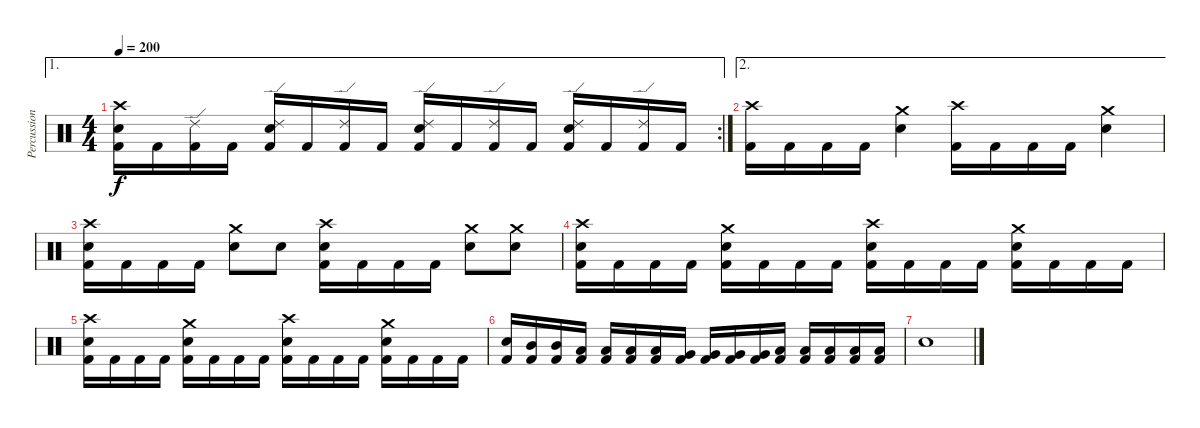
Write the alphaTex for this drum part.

\track ("Percussions" "Percussion") {instrument percussion}
\staff {score}
\articulation defaults
\ae 1
\rc 2
\ts (4 4)
\tempo 200
\clef neutral
\ks c
("Crash high (hit)" "Snare (hit) 2" "Kick (hit) 2").16{dy f} "Kick (hit) 2".16 ("Ride (edge) 2" "Kick (hit) 2").16 "Kick (hit) 2".16 ("Ride (edge) 2" "Snare (hit) 2" "Kick (hit) 2").16 "Kick (hit) 2".16 ("Ride (edge) 2" "Kick (hit) 2").16 "Kick (hit) 2".16 ("Ride (edge) 2" "Snare (hit) 2" "Kick (hit) 2").16 "Kick (hit) 2".16 ("Ride (edge) 2" "Kick (hit) 2").16 "Kick (hit) 2".16 ("Ride (edge) 2" "Snare (hit) 2" "Kick (hit) 2").16 "Kick (hit) 2".16 ("Ride (edge) 2" "Kick (hit) 2").16 "Kick (hit) 2".16 |
\ae 2
("Crash high (hit)" "Kick (hit) 2").16 "Kick (hit) 2".16 "Kick (hit) 2".16 "Kick (hit) 2".16 ("Crash medium (hit)" "Snare (hit) 2").4 ("Crash high (hit)" "Kick (hit) 2").16 "Kick (hit) 2".16 "Kick (hit) 2".16 "Kick (hit) 2".16 ("Crash medium (hit)" "Snare (hit) 2").4 |
("Crash high (hit)" "Snare (hit) 2" "Kick (hit) 2").16 "Kick (hit) 2".16 "Kick (hit) 2".16 "Kick (hit) 2".16 ("Crash medium (hit)" "Snare (hit) 2").8 "Snare (hit) 2".8 ("Crash high (hit)" "Snare (hit) 2" "Kick (hit) 2").16 "Kick (hit) 2".16 "Kick (hit) 2".16 "Kick (hit) 2".16 ("Crash medium (hit)" "Snare (hit) 2").8 ("Crash medium (hit)" "Snare (hit) 2").8 |
("Crash high (hit)" "Snare (hit) 2" "Kick (hit) 2").16 "Kick (hit) 2".16 "Kick (hit) 2".16 "Kick (hit) 2".16 ("Crash medium (hit)" "Snare (hit) 2" "Kick (hit) 2").16 "Kick (hit) 2".16 "Kick (hit) 2".16 "Kick (hit) 2".16 ("Crash high (hit)" "Snare (hit) 2" "Kick (hit) 2").16 "Kick (hit) 2".16 "Kick (hit) 2".16 "Kick (hit) 2".16 ("Crash medium (hit)" "Snare (hit) 2" "Kick (hit) 2").16 "Kick (hit) 2".16 "Kick (hit) 2".16 "Kick (hit) 2".16 |
("Crash high (hit)" "Snare (hit) 2" "Kick (hit) 2").16 "Kick (hit) 2".16 "Kick (hit) 2".16 "Kick (hit) 2".16 ("Crash medium (hit)" "Snare (hit) 2" "Kick (hit) 2").16 "Kick (hit) 2".16 "Kick (hit) 2".16 "Kick (hit) 2".16 ("Crash high (hit)" "Snare (hit) 2" "Kick (hit) 2").16 "Kick (hit) 2".16 "Kick (hit) 2".16 "Kick (hit) 2".16 ("Crash medium (hit)" "Snare (hit) 2" "Kick (hit) 2").16 "Kick (hit) 2".16 "Kick (hit) 2".16 "Kick (hit) 2".16 |
("Snare (hit) 2" "Kick (hit) 2").16 ("Mid Tom (hit)" "Kick (hit) 2").16 ("Mid Tom (hit)" "Kick (hit) 2").16 ("Low Tom (hit)" "Kick (hit) 2").16 ("Low Tom (hit)" "Kick (hit) 2").16 ("Low Tom (hit)" "Kick (hit) 2").16 ("Low Tom (hit)" "Kick (hit) 2").16 ("Very Low Tom (hit)" "Kick (hit) 2").16 ("Very Low Tom (hit)" "Kick (hit) 2").16 ("Very Low Tom (hit)" "Kick (hit) 2").16 ("Very Low Tom (hit)" "Kick (hit) 2").16 ("Low Floor Tom (hit)" "Kick (hit) 2").16 ("Low Floor Tom (hit)" "Kick (hit) 2").16 ("Low Floor Tom (hit)" "Kick (hit) 2").16 ("Low Floor Tom (hit)" "Kick (hit) 2").16 ("Low Floor Tom (hit)" "Kick (hit) 2").16 |
"Snare (hit) 2".1
